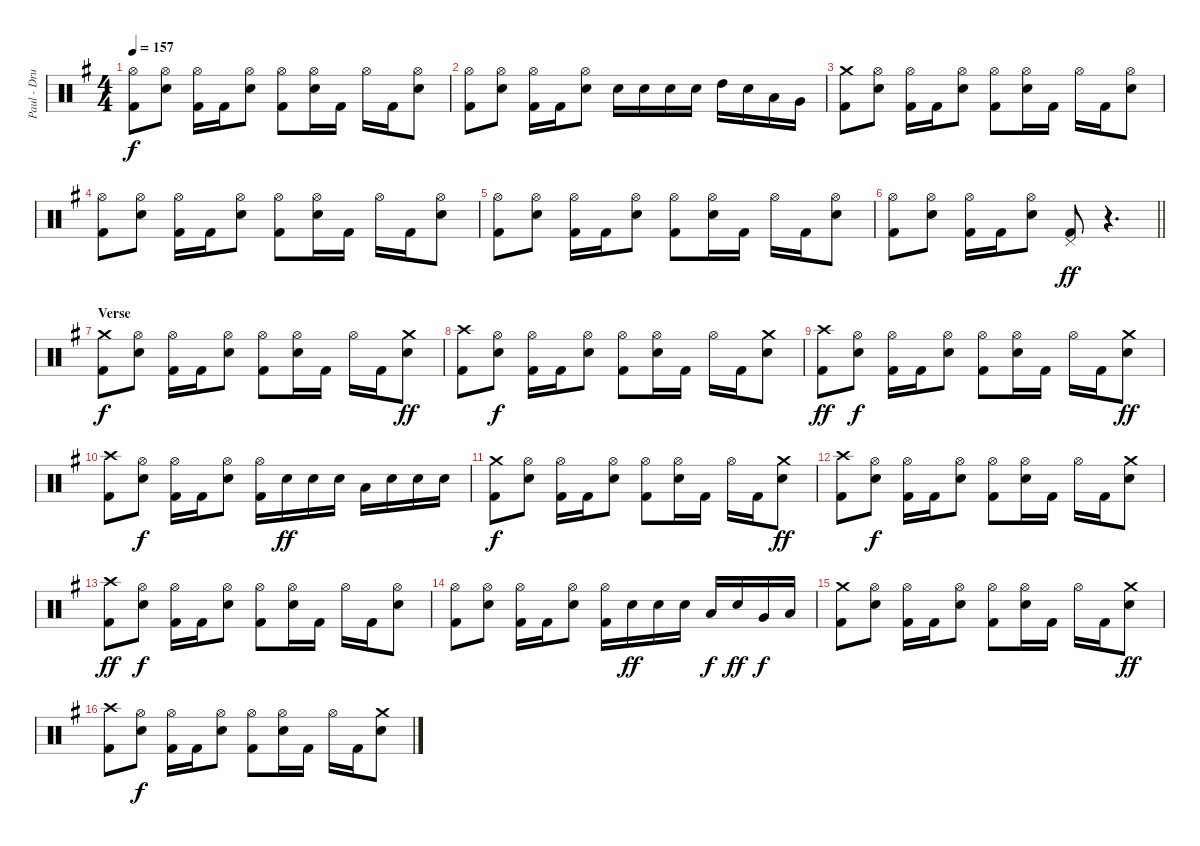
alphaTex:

\track ("Paul - Drums" "Paul - Dru") {instrument percussion}
\staff {score}
\articulation defaults
\ts (4 4)
\tempo 157
\clef neutral
\ks g
("Hi-Hat (open)" "Kick (hit) 2").8{dy f} ("Hi-Hat (open)" "Electric Snare (hit)").8 ("Hi-Hat (open)" "Kick (hit) 2").16 "Kick (hit) 2".16 ("Hi-Hat (open)" "Electric Snare (hit)").8 ("Hi-Hat (open)" "Kick (hit) 2").8 ("Hi-Hat (open)" "Electric Snare (hit)").16 "Kick (hit) 2".16 "Hi-Hat (open)".16 "Kick (hit) 2".16 ("Hi-Hat (open)" "Electric Snare (hit)").8 |
("Hi-Hat (open)" "Kick (hit) 2").8 ("Hi-Hat (open)" "Electric Snare (hit)").8 ("Hi-Hat (open)" "Kick (hit) 2").16 "Kick (hit) 2".16 ("Hi-Hat (open)" "Electric Snare (hit)").8 "Electric Snare (hit)".16 "Electric Snare (hit)".16 "Electric Snare (hit)".16 "Electric Snare (hit)".16 "High Tom (hit)".16 "Electric Snare (hit)".16 "Low Tom (hit)".16 "Very Low Tom (hit)".16 |
("Crash medium (hit)" "Kick (hit) 2").8 ("Hi-Hat (open)" "Electric Snare (hit)").8 ("Hi-Hat (open)" "Kick (hit) 2").16 "Kick (hit) 2".16 ("Hi-Hat (open)" "Electric Snare (hit)").8 ("Hi-Hat (open)" "Kick (hit) 2").8 ("Hi-Hat (open)" "Electric Snare (hit)").16 "Kick (hit) 2".16 "Hi-Hat (open)".16 "Kick (hit) 2".16 ("Hi-Hat (open)" "Electric Snare (hit)").8 |
("Hi-Hat (open)" "Kick (hit) 2").8 ("Hi-Hat (open)" "Electric Snare (hit)").8 ("Hi-Hat (open)" "Kick (hit) 2").16 "Kick (hit) 2".16 ("Hi-Hat (open)" "Electric Snare (hit)").8 ("Hi-Hat (open)" "Kick (hit) 2").8 ("Hi-Hat (open)" "Electric Snare (hit)").16 "Kick (hit) 2".16 "Hi-Hat (open)".16 "Kick (hit) 2".16 ("Hi-Hat (open)" "Electric Snare (hit)").8 |
("Hi-Hat (open)" "Kick (hit) 2").8 ("Hi-Hat (open)" "Electric Snare (hit)").8 ("Hi-Hat (open)" "Kick (hit) 2").16 "Kick (hit) 2".16 ("Hi-Hat (open)" "Electric Snare (hit)").8 ("Hi-Hat (open)" "Kick (hit) 2").8 ("Hi-Hat (open)" "Electric Snare (hit)").16 "Kick (hit) 2".16 "Hi-Hat (open)".16 "Kick (hit) 2".16 ("Hi-Hat (open)" "Electric Snare (hit)").8 |
\barLineRight lightlight
("Hi-Hat (open)" "Kick (hit) 2").8 ("Hi-Hat (open)" "Electric Snare (hit)").8 ("Hi-Hat (open)" "Kick (hit) 2").16 "Kick (hit) 2".16 ("Hi-Hat (open)" "Electric Snare (hit)").8 ("Pedal Hi-Hat (hit)" "Kick (hit) 2").8{dy ff} r.4{d} |
\section ("" "Verse")
("Crash medium (hit)" "Kick (hit) 2").8{dy f} ("Hi-Hat (open)" "Electric Snare (hit)").8 ("Hi-Hat (open)" "Kick (hit) 2").16 "Kick (hit) 2".16 ("Hi-Hat (open)" "Electric Snare (hit)").8 ("Hi-Hat (open)" "Kick (hit) 2").8 ("Hi-Hat (open)" "Electric Snare (hit)").16 "Kick (hit) 2".16 "Hi-Hat (open)".16 "Kick (hit) 2".16 ("Crash medium (hit)" "Electric Snare (hit)").8{dy ff} |
("Crash high (hit)" "Kick (hit) 2").8 ("Hi-Hat (open)" "Electric Snare (hit)").8{dy f} ("Hi-Hat (open)" "Kick (hit) 2").16 "Kick (hit) 2".16 ("Hi-Hat (open)" "Electric Snare (hit)").8 ("Hi-Hat (open)" "Kick (hit) 2").8 ("Hi-Hat (open)" "Electric Snare (hit)").16 "Kick (hit) 2".16 "Hi-Hat (open)".16 "Kick (hit) 2".16 ("Crash medium (hit)" "Electric Snare (hit)").8 |
("Crash high (hit)" "Kick (hit) 2").8{dy ff} ("Hi-Hat (open)" "Electric Snare (hit)").8{dy f} ("Hi-Hat (open)" "Kick (hit) 2").16 "Kick (hit) 2".16 ("Hi-Hat (open)" "Electric Snare (hit)").8 ("Hi-Hat (open)" "Kick (hit) 2").8 ("Hi-Hat (open)" "Electric Snare (hit)").16 "Kick (hit) 2".16 "Hi-Hat (open)".16 "Kick (hit) 2".16 ("Crash medium (hit)" "Electric Snare (hit)").8{dy ff} |
("Crash high (hit)" "Kick (hit) 2").8 ("Hi-Hat (open)" "Electric Snare (hit)").8{dy f} ("Hi-Hat (open)" "Kick (hit) 2").16 "Kick (hit) 2".16 ("Hi-Hat (open)" "Electric Snare (hit)").8 ("Hi-Hat (open)" "Kick (hit) 2").16 "Electric Snare (hit)".16{dy ff} "Electric Snare (hit)".16 "Electric Snare (hit)".16 "Low Tom (hit)".16 "Electric Snare (hit)".16 "Electric Snare (hit)".16 "Electric Snare (hit)".16 |
("Crash medium (hit)" "Kick (hit) 2").8{dy f} ("Hi-Hat (open)" "Electric Snare (hit)").8 ("Hi-Hat (open)" "Kick (hit) 2").16 "Kick (hit) 2".16 ("Hi-Hat (open)" "Electric Snare (hit)").8 ("Hi-Hat (open)" "Kick (hit) 2").8 ("Hi-Hat (open)" "Electric Snare (hit)").16 "Kick (hit) 2".16 "Hi-Hat (open)".16 "Kick (hit) 2".16 ("Crash medium (hit)" "Electric Snare (hit)").8{dy ff} |
("Crash high (hit)" "Kick (hit) 2").8 ("Hi-Hat (open)" "Electric Snare (hit)").8{dy f} ("Hi-Hat (open)" "Kick (hit) 2").16 "Kick (hit) 2".16 ("Hi-Hat (open)" "Electric Snare (hit)").8 ("Hi-Hat (open)" "Kick (hit) 2").8 ("Hi-Hat (open)" "Electric Snare (hit)").16 "Kick (hit) 2".16 "Hi-Hat (open)".16 "Kick (hit) 2".16 ("Crash medium (hit)" "Electric Snare (hit)").8 |
("Crash high (hit)" "Kick (hit) 2").8{dy ff} ("Hi-Hat (open)" "Electric Snare (hit)").8{dy f} ("Hi-Hat (open)" "Kick (hit) 2").16 "Kick (hit) 2".16 ("Hi-Hat (open)" "Electric Snare (hit)").8 ("Hi-Hat (open)" "Kick (hit) 2").8 ("Hi-Hat (open)" "Electric Snare (hit)").16 "Kick (hit) 2".16 "Hi-Hat (open)".16 "Kick (hit) 2".16 ("Hi-Hat (open)" "Electric Snare (hit)").8 |
("Hi-Hat (open)" "Kick (hit) 2").8 ("Hi-Hat (open)" "Electric Snare (hit)").8 ("Hi-Hat (open)" "Kick (hit) 2").16 "Kick (hit) 2".16 ("Hi-Hat (open)" "Electric Snare (hit)").8 ("Hi-Hat (open)" "Kick (hit) 2").16 "Electric Snare (hit)".16{dy ff} "Electric Snare (hit)".16 "Electric Snare (hit)".16 "Low Tom (hit)".16{dy f} "Electric Snare (hit)".16{dy ff} "Very Low Tom (hit)".16{dy f} "Low Floor Tom (hit)".16 |
("Crash medium (hit)" "Kick (hit) 2").8 ("Hi-Hat (open)" "Electric Snare (hit)").8 ("Hi-Hat (open)" "Kick (hit) 2").16 "Kick (hit) 2".16 ("Hi-Hat (open)" "Electric Snare (hit)").8 ("Hi-Hat (open)" "Kick (hit) 2").8 ("Hi-Hat (open)" "Electric Snare (hit)").16 "Kick (hit) 2".16 "Hi-Hat (open)".16 "Kick (hit) 2".16 ("Crash medium (hit)" "Electric Snare (hit)").8{dy ff} |
("Crash high (hit)" "Kick (hit) 2").8 ("Hi-Hat (open)" "Electric Snare (hit)").8{dy f} ("Hi-Hat (open)" "Kick (hit) 2").16 "Kick (hit) 2".16 ("Hi-Hat (open)" "Electric Snare (hit)").8 ("Hi-Hat (open)" "Kick (hit) 2").8 ("Hi-Hat (open)" "Electric Snare (hit)").16 "Kick (hit) 2".16 "Hi-Hat (open)".16 "Kick (hit) 2".16 ("Crash medium (hit)" "Electric Snare (hit)").8
